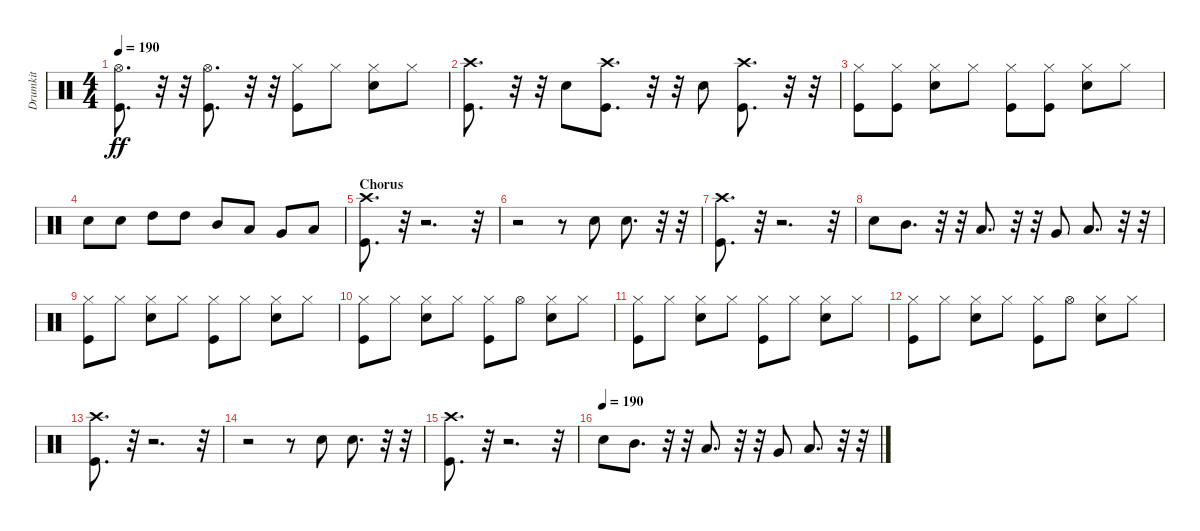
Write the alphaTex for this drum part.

\track ("Drumkit" "Drumkit") {instrument percussion}
\staff {score}
\articulation defaults
\ts (4 4)
\tempo 190
\clef neutral
\ks c
("Kick (hit)" "Hi-Hat (open)").8{d dy ff} r.32 r.32 ("Kick (hit)" "Hi-Hat (open)").8{d} r.32 r.32 ("Kick (hit)" "Hi-Hat (closed)").8 "Hi-Hat (closed)".8 ("Snare (hit) 2" "Hi-Hat (closed)").8 "Hi-Hat (closed)".8 |
("Kick (hit)" "Crash high (hit)").8{d} r.32 r.32 "Snare (hit) 2".8 ("Kick (hit)" "Crash high (hit)").8{d} r.32 r.32 "Snare (hit) 2".8 ("Kick (hit)" "Crash high (hit)").8{d} r.32 r.32 |
("Kick (hit)" "Hi-Hat (closed)").8 ("Kick (hit)" "Hi-Hat (closed)").8 ("Snare (hit) 2" "Hi-Hat (closed)").8 "Hi-Hat (closed)".8 ("Kick (hit)" "Hi-Hat (closed)").8 ("Kick (hit)" "Hi-Hat (closed)").8 ("Snare (hit) 2" "Hi-Hat (closed)").8 "Hi-Hat (closed)".8 |
"Snare (hit) 2".8 "Snare (hit) 2".8 "High Tom (hit)".8 "High Tom (hit)".8 "Mid Tom (hit)".8 "Low Tom (hit)".8 "Very Low Tom (hit)".8 "Low Floor Tom (hit)".8 |
\section ("" "Chorus")
("Kick (hit)" "Crash high (hit)").8{d} r.32 r.2{d} r.32 |
r.2 r.8 "Snare (hit) 2".8 "Snare (hit) 2".8{d} r.32 r.32 |
("Kick (hit)" "Crash high (hit)").8{d} r.32 r.2{d} r.32 |
"Snare (hit) 2".8 "Mid Tom (hit)".8{d} r.32 r.32 "Low Tom (hit)".8{d} r.32 r.32 "Very Low Tom (hit)".8 "Low Floor Tom (hit)".8{d} r.32 r.32 |
("Kick (hit)" "Hi-Hat (closed)").8 "Hi-Hat (closed)".8 ("Snare (hit) 2" "Hi-Hat (closed)").8 "Hi-Hat (closed)".8 ("Kick (hit)" "Hi-Hat (closed)").8 "Hi-Hat (closed)".8 ("Snare (hit) 2" "Hi-Hat (closed)").8 "Hi-Hat (closed)".8 |
("Kick (hit)" "Hi-Hat (closed)").8 "Hi-Hat (closed)".8 ("Snare (hit) 2" "Hi-Hat (closed)").8 "Hi-Hat (closed)".8 ("Kick (hit)" "Hi-Hat (closed)").8 "Hi-Hat (open)".8 ("Snare (hit) 2" "Hi-Hat (closed)").8 "Hi-Hat (closed)".8 |
("Kick (hit)" "Hi-Hat (closed)").8 "Hi-Hat (closed)".8 ("Snare (hit) 2" "Hi-Hat (closed)").8 "Hi-Hat (closed)".8 ("Kick (hit)" "Hi-Hat (closed)").8 "Hi-Hat (closed)".8 ("Snare (hit) 2" "Hi-Hat (closed)").8 "Hi-Hat (closed)".8 |
("Kick (hit)" "Hi-Hat (closed)").8 "Hi-Hat (closed)".8 ("Snare (hit) 2" "Hi-Hat (closed)").8 "Hi-Hat (closed)".8 ("Kick (hit)" "Hi-Hat (closed)").8 "Hi-Hat (open)".8 ("Snare (hit) 2" "Hi-Hat (closed)").8 "Hi-Hat (closed)".8 |
("Kick (hit)" "Crash high (hit)").8{d} r.32 r.2{d} r.32 |
r.2 r.8 "Snare (hit) 2".8 "Snare (hit) 2".8{d} r.32 r.32 |
("Kick (hit)" "Crash high (hit)").8{d} r.32 r.2{d} r.32 |
\tempo (190)
"Snare (hit) 2".8 "Mid Tom (hit)".8{d} r.32 r.32 "Low Tom (hit)".8{d} r.32 r.32 "Very Low Tom (hit)".8 "Low Floor Tom (hit)".8{d} r.32 r.32
